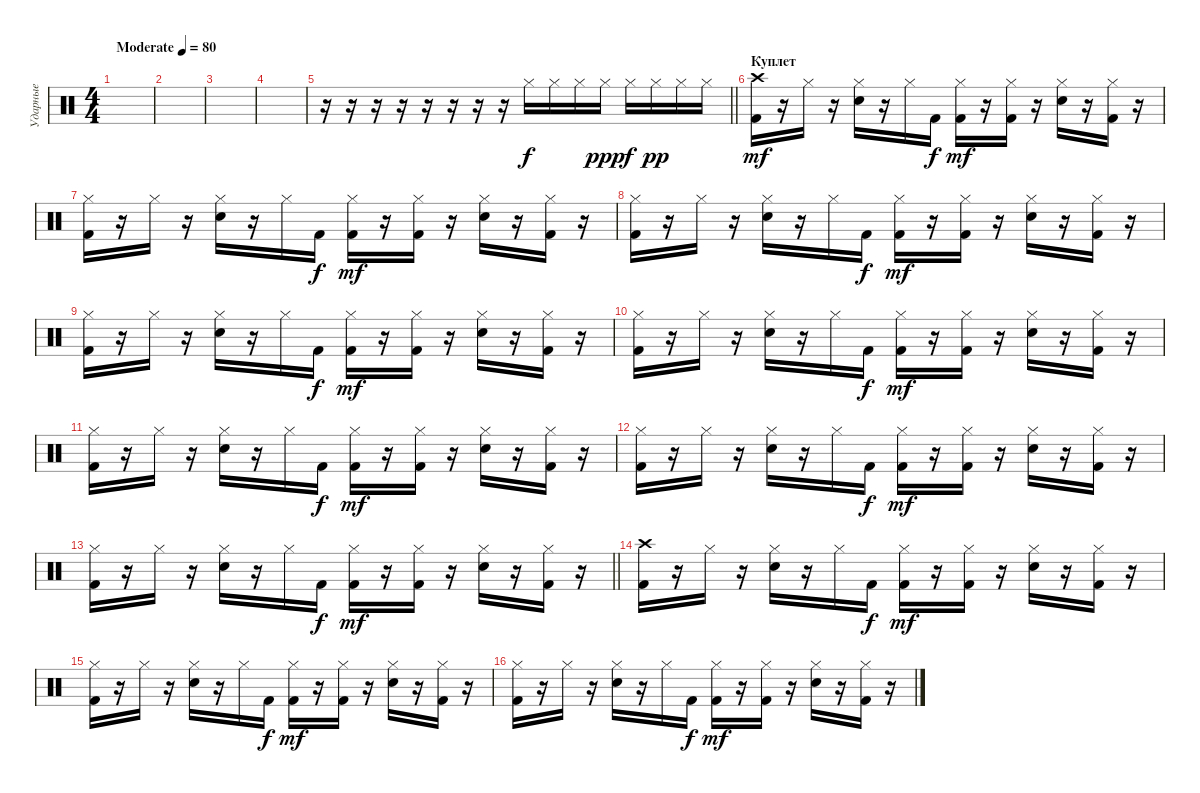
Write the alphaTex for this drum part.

\track ("Ударные" "Ударные") {instrument percussion}
\staff {score}
\articulation defaults
\ts (4 4)
\tempo (80 "Moderate")
\clef neutral
\ks c
|
|
|
|
\barLineRight lightlight
r.16 r.16 r.16 r.16 r.16 r.16 r.16 r.16 "Hi-Hat (closed)".16 "Hi-Hat (closed)".16 "Hi-Hat (closed)".16 "Hi-Hat (closed)".16{dy ppp} "Hi-Hat (closed)".16{dy f} "Hi-Hat (closed)".16{dy pp} "Hi-Hat (closed)".16 "Hi-Hat (closed)".16 |
\section ("" "Куплет")
("Crash high (hit)" "Kick (hit) 2").16{dy mf} r.16 "Hi-Hat (closed)".16 r.16 ("Hi-Hat (closed)" "Electric Snare (hit)").16 r.16 "Hi-Hat (closed)".16 "Kick (hit) 2".16{dy f} ("Hi-Hat (closed)" "Kick (hit) 2").16{dy mf} r.16 ("Hi-Hat (closed)" "Kick (hit) 2").16 r.16 ("Hi-Hat (closed)" "Electric Snare (hit)").16 r.16 ("Hi-Hat (closed)" "Kick (hit) 2").16 r.16 |
("Hi-Hat (closed)" "Kick (hit) 2").16 r.16 "Hi-Hat (closed)".16 r.16 ("Hi-Hat (closed)" "Electric Snare (hit)").16 r.16 "Hi-Hat (closed)".16 "Kick (hit) 2".16{dy f} ("Hi-Hat (closed)" "Kick (hit) 2").16{dy mf} r.16 ("Hi-Hat (closed)" "Kick (hit) 2").16 r.16 ("Hi-Hat (closed)" "Electric Snare (hit)").16 r.16 ("Hi-Hat (closed)" "Kick (hit) 2").16 r.16 |
("Hi-Hat (closed)" "Kick (hit) 2").16 r.16 "Hi-Hat (closed)".16 r.16 ("Hi-Hat (closed)" "Electric Snare (hit)").16 r.16 "Hi-Hat (closed)".16 "Kick (hit) 2".16{dy f} ("Hi-Hat (closed)" "Kick (hit) 2").16{dy mf} r.16 ("Hi-Hat (closed)" "Kick (hit) 2").16 r.16 ("Hi-Hat (closed)" "Electric Snare (hit)").16 r.16 ("Hi-Hat (closed)" "Kick (hit) 2").16 r.16 |
("Hi-Hat (closed)" "Kick (hit) 2").16 r.16 "Hi-Hat (closed)".16 r.16 ("Hi-Hat (closed)" "Electric Snare (hit)").16 r.16 "Hi-Hat (closed)".16 "Kick (hit) 2".16{dy f} ("Hi-Hat (closed)" "Kick (hit) 2").16{dy mf} r.16 ("Hi-Hat (closed)" "Kick (hit) 2").16 r.16 ("Hi-Hat (closed)" "Electric Snare (hit)").16 r.16 ("Hi-Hat (closed)" "Kick (hit) 2").16 r.16 |
("Hi-Hat (closed)" "Kick (hit) 2").16 r.16 "Hi-Hat (closed)".16 r.16 ("Hi-Hat (closed)" "Electric Snare (hit)").16 r.16 "Hi-Hat (closed)".16 "Kick (hit) 2".16{dy f} ("Hi-Hat (closed)" "Kick (hit) 2").16{dy mf} r.16 ("Hi-Hat (closed)" "Kick (hit) 2").16 r.16 ("Hi-Hat (closed)" "Electric Snare (hit)").16 r.16 ("Hi-Hat (closed)" "Kick (hit) 2").16 r.16 |
("Hi-Hat (closed)" "Kick (hit) 2").16 r.16 "Hi-Hat (closed)".16 r.16 ("Hi-Hat (closed)" "Electric Snare (hit)").16 r.16 "Hi-Hat (closed)".16 "Kick (hit) 2".16{dy f} ("Hi-Hat (closed)" "Kick (hit) 2").16{dy mf} r.16 ("Hi-Hat (closed)" "Kick (hit) 2").16 r.16 ("Hi-Hat (closed)" "Electric Snare (hit)").16 r.16 ("Hi-Hat (closed)" "Kick (hit) 2").16 r.16 |
("Hi-Hat (closed)" "Kick (hit) 2").16 r.16 "Hi-Hat (closed)".16 r.16 ("Hi-Hat (closed)" "Electric Snare (hit)").16 r.16 "Hi-Hat (closed)".16 "Kick (hit) 2".16{dy f} ("Hi-Hat (closed)" "Kick (hit) 2").16{dy mf} r.16 ("Hi-Hat (closed)" "Kick (hit) 2").16 r.16 ("Hi-Hat (closed)" "Electric Snare (hit)").16 r.16 ("Hi-Hat (closed)" "Kick (hit) 2").16 r.16 |
\barLineRight lightlight
("Hi-Hat (closed)" "Kick (hit) 2").16 r.16 "Hi-Hat (closed)".16 r.16 ("Hi-Hat (closed)" "Electric Snare (hit)").16 r.16 "Hi-Hat (closed)".16 "Kick (hit) 2".16{dy f} ("Hi-Hat (closed)" "Kick (hit) 2").16{dy mf} r.16 ("Hi-Hat (closed)" "Kick (hit) 2").16 r.16 ("Hi-Hat (closed)" "Electric Snare (hit)").16 r.16 ("Hi-Hat (closed)" "Kick (hit) 2").16 r.16 |
("Crash high (hit)" "Kick (hit) 2").16 r.16 "Hi-Hat (closed)".16 r.16 ("Hi-Hat (closed)" "Electric Snare (hit)").16 r.16 "Hi-Hat (closed)".16 "Kick (hit) 2".16{dy f} ("Hi-Hat (closed)" "Kick (hit) 2").16{dy mf} r.16 ("Hi-Hat (closed)" "Kick (hit) 2").16 r.16 ("Hi-Hat (closed)" "Electric Snare (hit)").16 r.16 ("Hi-Hat (closed)" "Kick (hit) 2").16 r.16 |
("Hi-Hat (closed)" "Kick (hit) 2").16 r.16 "Hi-Hat (closed)".16 r.16 ("Hi-Hat (closed)" "Electric Snare (hit)").16 r.16 "Hi-Hat (closed)".16 "Kick (hit) 2".16{dy f} ("Hi-Hat (closed)" "Kick (hit) 2").16{dy mf} r.16 ("Hi-Hat (closed)" "Kick (hit) 2").16 r.16 ("Hi-Hat (closed)" "Electric Snare (hit)").16 r.16 ("Hi-Hat (closed)" "Kick (hit) 2").16 r.16 |
("Hi-Hat (closed)" "Kick (hit) 2").16 r.16 "Hi-Hat (closed)".16 r.16 ("Hi-Hat (closed)" "Electric Snare (hit)").16 r.16 "Hi-Hat (closed)".16 "Kick (hit) 2".16{dy f} ("Hi-Hat (closed)" "Kick (hit) 2").16{dy mf} r.16 ("Hi-Hat (closed)" "Kick (hit) 2").16 r.16 ("Hi-Hat (closed)" "Electric Snare (hit)").16 r.16 ("Hi-Hat (closed)" "Kick (hit) 2").16 r.16
